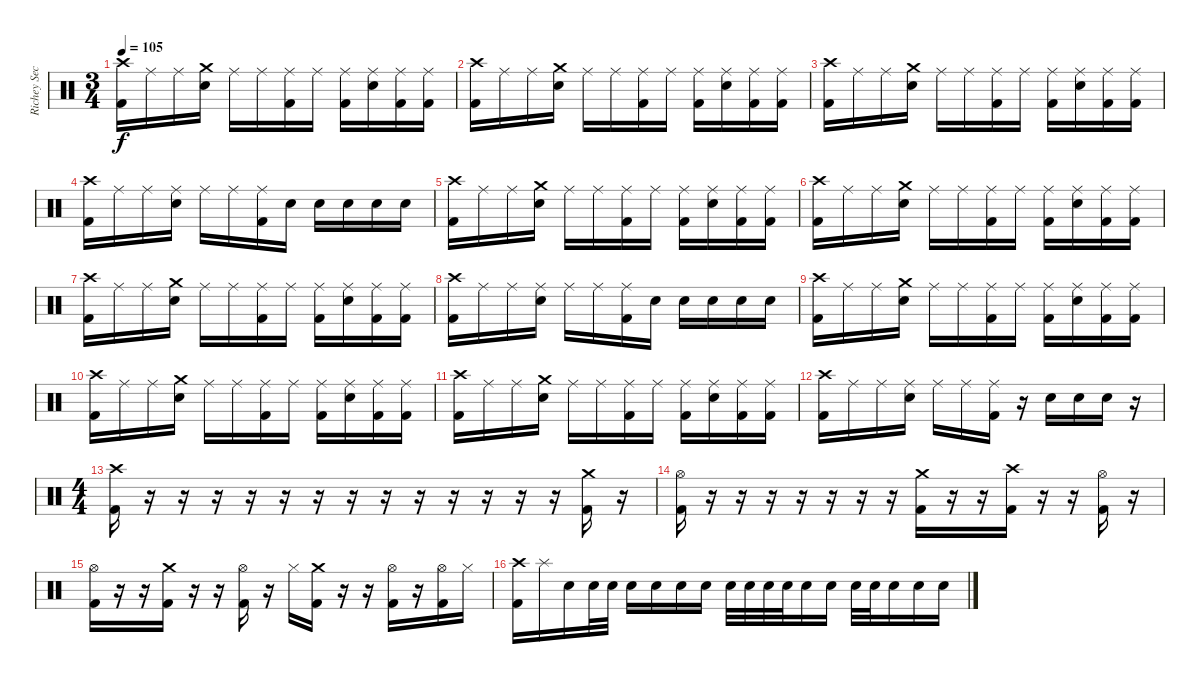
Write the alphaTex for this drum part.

\track ("Richey Secchiri" "Richey Sec") {instrument percussion}
\staff {score}
\articulation defaults
\ts (3 4)
\tempo 105
\clef neutral
\ks c
("Crash high (hit)" "Kick (hit) 2").16{dy f} "Ride (middle)".16 "Ride (middle)".16 ("Crash medium (hit)" "Snare (hit) 2").16 "Ride (middle)".16 "Ride (middle)".16 ("Ride (middle)" "Kick (hit) 2").16 "Ride (middle)".16 ("Ride (middle)" "Kick (hit) 2").16 ("Ride (middle)" "Snare (hit) 2").16 ("Ride (middle)" "Kick (hit) 2").16 ("Ride (middle)" "Kick (hit) 2").16 |
("Crash high (hit)" "Kick (hit) 2").16 "Ride (middle)".16 "Ride (middle)".16 ("Crash medium (hit)" "Snare (hit) 2").16 "Ride (middle)".16 "Ride (middle)".16 ("Ride (middle)" "Kick (hit) 2").16 "Ride (middle)".16 ("Ride (middle)" "Kick (hit) 2").16 ("Ride (middle)" "Snare (hit) 2").16 ("Ride (middle)" "Kick (hit) 2").16 ("Ride (middle)" "Kick (hit) 2").16 |
("Crash high (hit)" "Kick (hit) 2").16 "Ride (middle)".16 "Ride (middle)".16 ("Crash medium (hit)" "Snare (hit) 2").16 "Ride (middle)".16 "Ride (middle)".16 ("Ride (middle)" "Kick (hit) 2").16 "Ride (middle)".16 ("Ride (middle)" "Kick (hit) 2").16 ("Ride (middle)" "Snare (hit) 2").16 ("Ride (middle)" "Kick (hit) 2").16 ("Ride (middle)" "Kick (hit) 2").16 |
("Crash high (hit)" "Kick (hit) 2").16 "Ride (middle)".16 "Ride (middle)".16 ("Ride (middle)" "Snare (hit) 2").16 "Ride (middle)".16 "Ride (middle)".16 ("Ride (middle)" "Kick (hit) 2").16 "Snare (hit) 2".16 "Snare (hit) 2".16 "Snare (hit) 2".16 "Snare (hit) 2".16 "Snare (hit) 2".16 |
("Crash high (hit)" "Kick (hit) 2").16 "Ride (middle)".16 "Ride (middle)".16 ("Crash medium (hit)" "Snare (hit) 2").16 "Ride (middle)".16 "Ride (middle)".16 ("Ride (middle)" "Kick (hit) 2").16 "Ride (middle)".16 ("Ride (middle)" "Kick (hit) 2").16 ("Ride (middle)" "Snare (hit) 2").16 ("Ride (middle)" "Kick (hit) 2").16 ("Ride (middle)" "Kick (hit) 2").16 |
("Crash high (hit)" "Kick (hit) 2").16 "Ride (middle)".16 "Ride (middle)".16 ("Crash medium (hit)" "Snare (hit) 2").16 "Ride (middle)".16 "Ride (middle)".16 ("Ride (middle)" "Kick (hit) 2").16 "Ride (middle)".16 ("Ride (middle)" "Kick (hit) 2").16 ("Ride (middle)" "Snare (hit) 2").16 ("Ride (middle)" "Kick (hit) 2").16 ("Ride (middle)" "Kick (hit) 2").16 |
("Crash high (hit)" "Kick (hit) 2").16 "Ride (middle)".16 "Ride (middle)".16 ("Crash medium (hit)" "Snare (hit) 2").16 "Ride (middle)".16 "Ride (middle)".16 ("Ride (middle)" "Kick (hit) 2").16 "Ride (middle)".16 ("Ride (middle)" "Kick (hit) 2").16 ("Ride (middle)" "Snare (hit) 2").16 ("Ride (middle)" "Kick (hit) 2").16 ("Ride (middle)" "Kick (hit) 2").16 |
("Crash high (hit)" "Kick (hit) 2").16 "Ride (middle)".16 "Ride (middle)".16 ("Ride (middle)" "Snare (hit) 2").16 "Ride (middle)".16 "Ride (middle)".16 ("Ride (middle)" "Kick (hit) 2").16 "Snare (hit) 2".16 "Snare (hit) 2".16 "Snare (hit) 2".16 "Snare (hit) 2".16 "Snare (hit) 2".16 |
("Crash high (hit)" "Kick (hit) 2").16 "Ride (middle)".16 "Ride (middle)".16 ("Crash medium (hit)" "Snare (hit) 2").16 "Ride (middle)".16 "Ride (middle)".16 ("Ride (middle)" "Kick (hit) 2").16 "Ride (middle)".16 ("Ride (middle)" "Kick (hit) 2").16 ("Ride (middle)" "Snare (hit) 2").16 ("Ride (middle)" "Kick (hit) 2").16 ("Ride (middle)" "Kick (hit) 2").16 |
("Crash high (hit)" "Kick (hit) 2").16 "Ride (middle)".16 "Ride (middle)".16 ("Crash medium (hit)" "Snare (hit) 2").16 "Ride (middle)".16 "Ride (middle)".16 ("Ride (middle)" "Kick (hit) 2").16 "Ride (middle)".16 ("Ride (middle)" "Kick (hit) 2").16 ("Ride (middle)" "Snare (hit) 2").16 ("Ride (middle)" "Kick (hit) 2").16 ("Ride (middle)" "Kick (hit) 2").16 |
("Crash high (hit)" "Kick (hit) 2").16 "Ride (middle)".16 "Ride (middle)".16 ("Crash medium (hit)" "Snare (hit) 2").16 "Ride (middle)".16 "Ride (middle)".16 ("Ride (middle)" "Kick (hit) 2").16 "Ride (middle)".16 ("Ride (middle)" "Kick (hit) 2").16 ("Ride (middle)" "Snare (hit) 2").16 ("Ride (middle)" "Kick (hit) 2").16 ("Ride (middle)" "Kick (hit) 2").16 |
("Crash high (hit)" "Kick (hit) 2").16 "Ride (middle)".16 "Ride (middle)".16 ("Ride (middle)" "Snare (hit) 2").16 "Ride (middle)".16 "Ride (middle)".16 ("Ride (middle)" "Kick (hit) 2").16 r.16 "Snare (hit) 2".16 "Snare (hit) 2".16 "Snare (hit) 2".16 r.16 |
\ts (4 4)
("Crash high (hit)" "Kick (hit) 2").16 r.16 r.16 r.16 r.16 r.16 r.16 r.16 r.16 r.16 r.16 r.16 r.16 r.16 ("Crash medium (hit)" "Kick (hit) 2").16 r.16 |
("Hi-Hat (open)" "Kick (hit) 2").16 r.16 r.16 r.16 r.16 r.16 r.16 r.16 ("Crash medium (hit)" "Kick (hit) 2").16 r.16 r.16 ("Crash high (hit)" "Kick (hit) 2").16 r.16 r.16 ("Hi-Hat (open)" "Kick (hit) 2").16 r.16 |
("Hi-Hat (open)" "Kick (hit) 2").16 r.16 r.16 ("Crash medium (hit)" "Kick (hit) 2").16 r.16 r.16 ("Hi-Hat (open)" "Kick (hit) 2").16 r.16 "Hi-Hat (closed)".16 ("Crash medium (hit)" "Kick (hit) 2").16 r.16 r.16 ("Hi-Hat (open)" "Kick (hit) 2").16 r.16 ("Hi-Hat (open)" "Kick (hit) 2").16 "Hi-Hat (closed)".16 |
("Crash high (hit)" "Kick (hit) 2").16 "Splash (hit)".16 "Snare (hit) 2".16 "Snare (hit) 2".32 "Snare (hit) 2".32 "Snare (hit) 2".16 "Snare (hit) 2".16 "Snare (hit) 2".16 "Snare (hit) 2".16 "Snare (hit) 2".32 "Snare (hit) 2".32 "Snare (hit) 2".32 "Snare (hit) 2".32 "Snare (hit) 2".16 "Snare (hit) 2".16 "Snare (hit) 2".32 "Snare (hit) 2".32 "Snare (hit) 2".16 "Snare (hit) 2".16 "Snare (hit) 2".16
